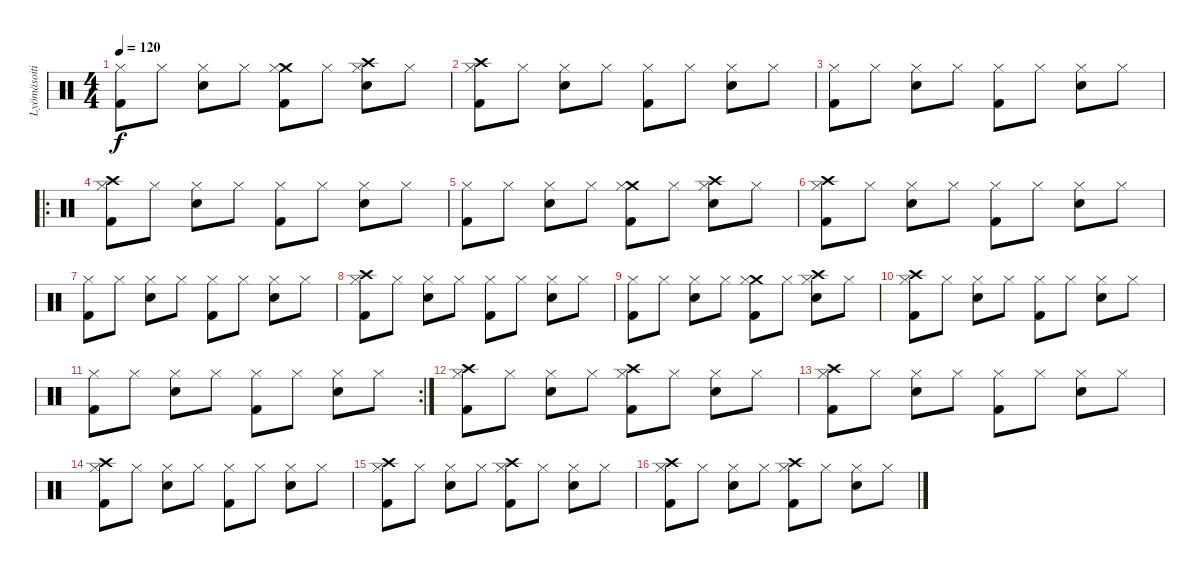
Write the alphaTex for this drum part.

\track ("Lyömäsoitin" "Lyömäsoiti") {instrument percussion}
\staff {score}
\articulation defaults
\ts (4 4)
\tempo 120
\clef neutral
\ks c
("Hi-Hat (closed)" "Kick (hit) 2").8{dy f} "Hi-Hat (closed)".8 ("Hi-Hat (closed)" "Electric Snare (hit)").8 "Hi-Hat (closed)".8 ("Crash medium (hit)" "Hi-Hat (closed)" "Kick (hit) 2").8 "Hi-Hat (closed)".8 ("Crash high (hit)" "Hi-Hat (closed)" "Electric Snare (hit)").8 "Hi-Hat (closed)".8 |
("Crash high (hit)" "Hi-Hat (closed)" "Kick (hit) 2").8 "Hi-Hat (closed)".8 ("Hi-Hat (closed)" "Electric Snare (hit)").8 "Hi-Hat (closed)".8 ("Hi-Hat (closed)" "Kick (hit) 2").8 "Hi-Hat (closed)".8 ("Hi-Hat (closed)" "Electric Snare (hit)").8 "Hi-Hat (closed)".8 |
("Hi-Hat (closed)" "Kick (hit) 2").8 "Hi-Hat (closed)".8 ("Hi-Hat (closed)" "Electric Snare (hit)").8 "Hi-Hat (closed)".8 ("Hi-Hat (closed)" "Kick (hit) 2").8 "Hi-Hat (closed)".8 ("Hi-Hat (closed)" "Electric Snare (hit)").8 "Hi-Hat (closed)".8 |
\ro
("Crash high (hit)" "Hi-Hat (closed)" "Kick (hit) 2").8 "Hi-Hat (closed)".8 ("Hi-Hat (closed)" "Electric Snare (hit)").8 "Hi-Hat (closed)".8 ("Hi-Hat (closed)" "Kick (hit) 2").8 "Hi-Hat (closed)".8 ("Hi-Hat (closed)" "Electric Snare (hit)").8 "Hi-Hat (closed)".8 |
("Hi-Hat (closed)" "Kick (hit) 2").8 "Hi-Hat (closed)".8 ("Hi-Hat (closed)" "Electric Snare (hit)").8 "Hi-Hat (closed)".8 ("Crash medium (hit)" "Hi-Hat (closed)" "Kick (hit) 2").8 "Hi-Hat (closed)".8 ("Crash high (hit)" "Hi-Hat (closed)" "Electric Snare (hit)").8 "Hi-Hat (closed)".8 |
("Crash high (hit)" "Hi-Hat (closed)" "Kick (hit) 2").8 "Hi-Hat (closed)".8 ("Hi-Hat (closed)" "Electric Snare (hit)").8 "Hi-Hat (closed)".8 ("Hi-Hat (closed)" "Kick (hit) 2").8 "Hi-Hat (closed)".8 ("Hi-Hat (closed)" "Electric Snare (hit)").8 "Hi-Hat (closed)".8 |
("Hi-Hat (closed)" "Kick (hit) 2").8 "Hi-Hat (closed)".8 ("Hi-Hat (closed)" "Electric Snare (hit)").8 "Hi-Hat (closed)".8 ("Hi-Hat (closed)" "Kick (hit) 2").8 "Hi-Hat (closed)".8 ("Hi-Hat (closed)" "Electric Snare (hit)").8 "Hi-Hat (closed)".8 |
("Crash high (hit)" "Hi-Hat (closed)" "Kick (hit) 2").8 "Hi-Hat (closed)".8 ("Hi-Hat (closed)" "Electric Snare (hit)").8 "Hi-Hat (closed)".8 ("Hi-Hat (closed)" "Kick (hit) 2").8 "Hi-Hat (closed)".8 ("Hi-Hat (closed)" "Electric Snare (hit)").8 "Hi-Hat (closed)".8 |
("Hi-Hat (closed)" "Kick (hit) 2").8 "Hi-Hat (closed)".8 ("Hi-Hat (closed)" "Electric Snare (hit)").8 "Hi-Hat (closed)".8 ("Crash medium (hit)" "Hi-Hat (closed)" "Kick (hit) 2").8 "Hi-Hat (closed)".8 ("Crash high (hit)" "Hi-Hat (closed)" "Electric Snare (hit)").8 "Hi-Hat (closed)".8 |
("Crash high (hit)" "Hi-Hat (closed)" "Kick (hit) 2").8 "Hi-Hat (closed)".8 ("Hi-Hat (closed)" "Electric Snare (hit)").8 "Hi-Hat (closed)".8 ("Hi-Hat (closed)" "Kick (hit) 2").8 "Hi-Hat (closed)".8 ("Hi-Hat (closed)" "Electric Snare (hit)").8 "Hi-Hat (closed)".8 |
\rc 2
("Hi-Hat (closed)" "Kick (hit) 2").8 "Hi-Hat (closed)".8 ("Hi-Hat (closed)" "Electric Snare (hit)").8 "Hi-Hat (closed)".8 ("Hi-Hat (closed)" "Kick (hit) 2").8 "Hi-Hat (closed)".8 ("Hi-Hat (closed)" "Electric Snare (hit)").8 "Hi-Hat (closed)".8 |
("Crash high (hit)" "Hi-Hat (closed)" "Kick (hit) 2").8 "Hi-Hat (closed)".8 ("Hi-Hat (closed)" "Electric Snare (hit)").8 "Hi-Hat (closed)".8 ("Crash high (hit)" "Hi-Hat (closed)" "Kick (hit) 2").8 "Hi-Hat (closed)".8 ("Hi-Hat (closed)" "Electric Snare (hit)").8 "Hi-Hat (closed)".8 |
("Crash high (hit)" "Hi-Hat (closed)" "Kick (hit) 2").8 "Hi-Hat (closed)".8 ("Hi-Hat (closed)" "Electric Snare (hit)").8 "Hi-Hat (closed)".8 ("Hi-Hat (closed)" "Kick (hit) 2").8 "Hi-Hat (closed)".8 ("Hi-Hat (closed)" "Electric Snare (hit)").8 "Hi-Hat (closed)".8 |
("Crash high (hit)" "Hi-Hat (closed)" "Kick (hit) 2").8 "Hi-Hat (closed)".8 ("Hi-Hat (closed)" "Electric Snare (hit)").8 "Hi-Hat (closed)".8 ("Hi-Hat (closed)" "Kick (hit) 2").8 "Hi-Hat (closed)".8 ("Hi-Hat (closed)" "Electric Snare (hit)").8 "Hi-Hat (closed)".8 |
("Crash high (hit)" "Hi-Hat (closed)" "Kick (hit) 2").8 "Hi-Hat (closed)".8 ("Hi-Hat (closed)" "Electric Snare (hit)").8 "Hi-Hat (closed)".8 ("Crash high (hit)" "Hi-Hat (closed)" "Kick (hit) 2").8 "Hi-Hat (closed)".8 ("Hi-Hat (closed)" "Electric Snare (hit)").8 "Hi-Hat (closed)".8 |
("Crash high (hit)" "Hi-Hat (closed)" "Kick (hit) 2").8 "Hi-Hat (closed)".8 ("Hi-Hat (closed)" "Electric Snare (hit)").8 "Hi-Hat (closed)".8 ("Crash high (hit)" "Hi-Hat (closed)" "Kick (hit) 2").8 "Hi-Hat (closed)".8 ("Hi-Hat (closed)" "Electric Snare (hit)").8 "Hi-Hat (closed)".8
